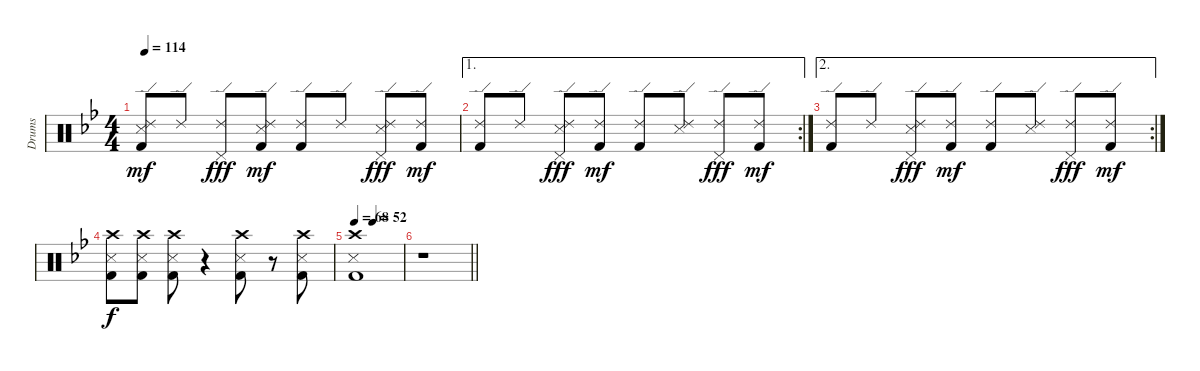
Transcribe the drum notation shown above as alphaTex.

\track ("Drums" "Drums") {instrument percussion}
\staff {score}
\articulation defaults
\ts (4 4)
\tempo 114
\clef neutral
\ks gminor
("Ride (edge) 2" "Snare (side stick) 3" "Kick (hit) 2").8{dy mf} "Ride (edge) 2".8 ("Ride (edge) 2" "Pedal Hi-Hat (hit)").8{dy fff} ("Ride (edge) 2" "Snare (side stick) 3" "Kick (hit) 2").8{dy mf} ("Ride (edge) 2" "Kick (hit) 2").8 "Ride (edge) 2".8 ("Ride (edge) 2" "Pedal Hi-Hat (hit)" "Snare (side stick) 3").8{dy fff} ("Ride (edge) 2" "Kick (hit) 2").8{dy mf} |
\ae 1
\rc 2
("Ride (edge) 2" "Kick (hit) 2").8 "Ride (edge) 2".8 ("Ride (edge) 2" "Pedal Hi-Hat (hit)" "Snare (side stick) 3").8{dy fff} ("Ride (edge) 2" "Kick (hit) 2").8{dy mf} ("Ride (edge) 2" "Kick (hit) 2").8 ("Ride (edge) 2" "Snare (side stick) 3").8 ("Ride (edge) 2" "Pedal Hi-Hat (hit)").8{dy fff} ("Ride (edge) 2" "Kick (hit) 2").8{dy mf} |
\ae 2
\rc 2
("Ride (edge) 2" "Kick (hit) 2").8 "Ride (edge) 2".8 ("Ride (edge) 2" "Pedal Hi-Hat (hit)" "Snare (side stick) 3").8{dy fff} ("Ride (edge) 2" "Kick (hit) 2").8{dy mf} ("Ride (edge) 2" "Kick (hit) 2").8 ("Ride (edge) 2" "Snare (side stick) 3").8 ("Ride (edge) 2" "Pedal Hi-Hat (hit)").8{dy fff} ("Ride (edge) 2" "Kick (hit) 2").8{dy mf} |
("Crash high (hit)" "Snare (side stick) 3" "Kick (hit) 2").8{dy f} ("Crash high (hit)" "Snare (side stick) 3" "Kick (hit) 2").8 ("Crash high (hit)" "Snare (side stick) 3" "Kick (hit) 2").8 r.4 ("Crash high (hit)" "Snare (side stick) 3" "Kick (hit) 2").8 r.8 ("Crash high (hit)" "Snare (side stick) 3" "Kick (hit) 2").8 |
\tempo 68
\tempo (52 0.375)
("Crash high (hit)" "Snare (side stick) 3" "Kick (hit) 2").1 |
\barLineRight lightlight
r.1
